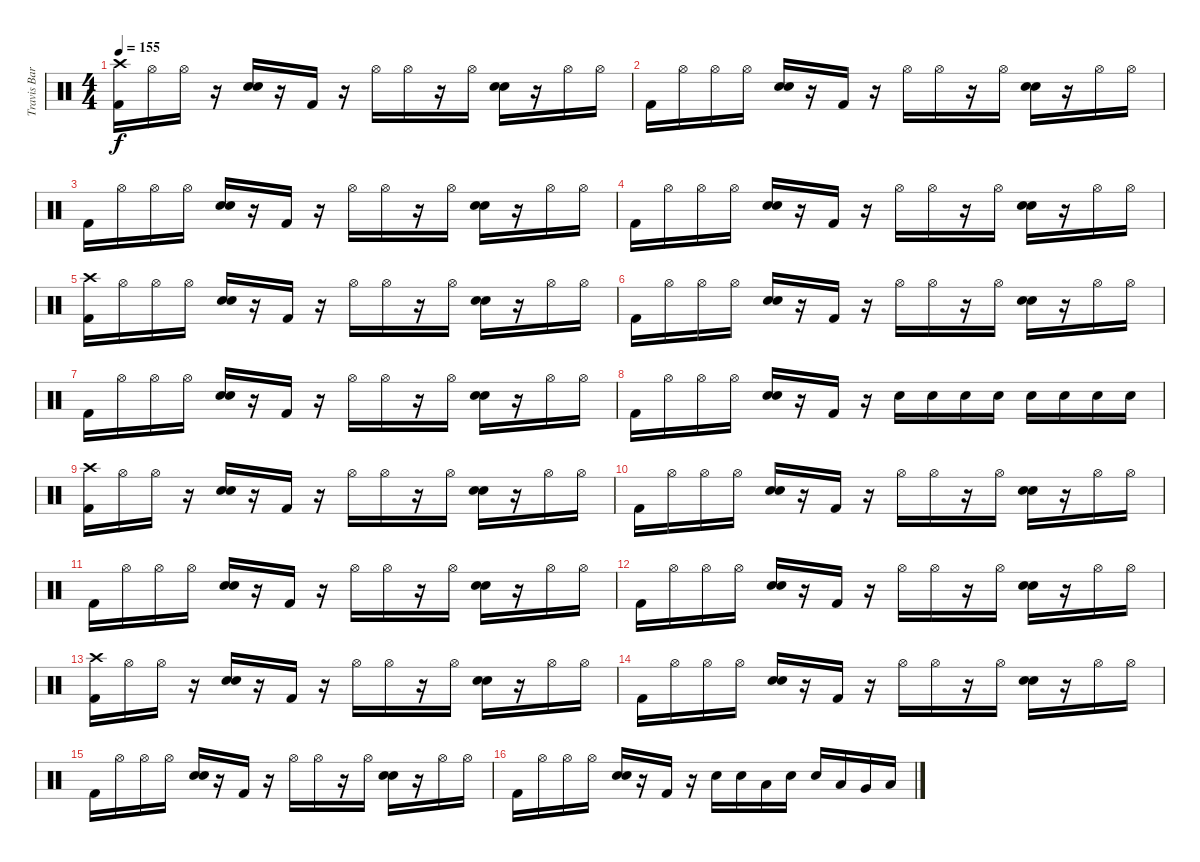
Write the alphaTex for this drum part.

\track ("Travis Barker Drums" "Travis Bar") {instrument percussion}
\staff {score}
\articulation defaults
\ts (4 4)
\tempo 155
\clef neutral
\ks c
("Crash high (hit)" "Kick (hit) 2").16{dy f} "Hi-Hat (open)".16 "Hi-Hat (open)".16 r.16 ("Hand Clap (hit)" "Snare (hit) 2").16 r.16 "Kick (hit) 2".16 r.16 "Hi-Hat (open)".16 "Hi-Hat (open)".16 r.16 "Hi-Hat (open)".16 ("Hand Clap (hit)" "Snare (hit) 2").16 r.16 "Hi-Hat (open)".16 "Hi-Hat (open)".16 |
"Kick (hit) 2".16 "Hi-Hat (open)".16 "Hi-Hat (open)".16 "Hi-Hat (open)".16 ("Hand Clap (hit)" "Snare (hit) 2").16 r.16 "Kick (hit) 2".16 r.16 "Hi-Hat (open)".16 "Hi-Hat (open)".16 r.16 "Hi-Hat (open)".16 ("Hand Clap (hit)" "Snare (hit) 2").16 r.16 "Hi-Hat (open)".16 "Hi-Hat (open)".16 |
"Kick (hit) 2".16 "Hi-Hat (open)".16 "Hi-Hat (open)".16 "Hi-Hat (open)".16 ("Hand Clap (hit)" "Snare (hit) 2").16 r.16 "Kick (hit) 2".16 r.16 "Hi-Hat (open)".16 "Hi-Hat (open)".16 r.16 "Hi-Hat (open)".16 ("Hand Clap (hit)" "Snare (hit) 2").16 r.16 "Hi-Hat (open)".16 "Hi-Hat (open)".16 |
"Kick (hit) 2".16 "Hi-Hat (open)".16 "Hi-Hat (open)".16 "Hi-Hat (open)".16 ("Hand Clap (hit)" "Snare (hit) 2").16 r.16 "Kick (hit) 2".16 r.16 "Hi-Hat (open)".16 "Hi-Hat (open)".16 r.16 "Hi-Hat (open)".16 ("Hand Clap (hit)" "Snare (hit) 2").16 r.16 "Hi-Hat (open)".16 "Hi-Hat (open)".16 |
("Crash high (hit)" "Kick (hit) 2").16 "Hi-Hat (open)".16 "Hi-Hat (open)".16 "Hi-Hat (open)".16 ("Hand Clap (hit)" "Snare (hit) 2").16 r.16 "Kick (hit) 2".16 r.16 "Hi-Hat (open)".16 "Hi-Hat (open)".16 r.16 "Hi-Hat (open)".16 ("Hand Clap (hit)" "Snare (hit) 2").16 r.16 "Hi-Hat (open)".16 "Hi-Hat (open)".16 |
"Kick (hit) 2".16 "Hi-Hat (open)".16 "Hi-Hat (open)".16 "Hi-Hat (open)".16 ("Hand Clap (hit)" "Snare (hit) 2").16 r.16 "Kick (hit) 2".16 r.16 "Hi-Hat (open)".16 "Hi-Hat (open)".16 r.16 "Hi-Hat (open)".16 ("Hand Clap (hit)" "Snare (hit) 2").16 r.16 "Hi-Hat (open)".16 "Hi-Hat (open)".16 |
"Kick (hit) 2".16 "Hi-Hat (open)".16 "Hi-Hat (open)".16 "Hi-Hat (open)".16 ("Hand Clap (hit)" "Snare (hit) 2").16 r.16 "Kick (hit) 2".16 r.16 "Hi-Hat (open)".16 "Hi-Hat (open)".16 r.16 "Hi-Hat (open)".16 ("Hand Clap (hit)" "Snare (hit) 2").16 r.16 "Hi-Hat (open)".16 "Hi-Hat (open)".16 |
"Kick (hit) 2".16 "Hi-Hat (open)".16 "Hi-Hat (open)".16 "Hi-Hat (open)".16 ("Hand Clap (hit)" "Snare (hit) 2").16 r.16 "Kick (hit) 2".16 r.16 "Snare (hit) 2".16 "Snare (hit) 2".16 "Snare (hit) 2".16 "Snare (hit) 2".16 "Snare (hit) 2".16 "Snare (hit) 2".16 "Snare (hit) 2".16 "Snare (hit) 2".16 |
("Crash high (hit)" "Kick (hit) 2").16 "Hi-Hat (open)".16 "Hi-Hat (open)".16 r.16 ("Hand Clap (hit)" "Snare (hit) 2").16 r.16 "Kick (hit) 2".16 r.16 "Hi-Hat (open)".16 "Hi-Hat (open)".16 r.16 "Hi-Hat (open)".16 ("Hand Clap (hit)" "Snare (hit) 2").16 r.16 "Hi-Hat (open)".16 "Hi-Hat (open)".16 |
"Kick (hit) 2".16 "Hi-Hat (open)".16 "Hi-Hat (open)".16 "Hi-Hat (open)".16 ("Hand Clap (hit)" "Snare (hit) 2").16 r.16 "Kick (hit) 2".16 r.16 "Hi-Hat (open)".16 "Hi-Hat (open)".16 r.16 "Hi-Hat (open)".16 ("Hand Clap (hit)" "Snare (hit) 2").16 r.16 "Hi-Hat (open)".16 "Hi-Hat (open)".16 |
"Kick (hit) 2".16 "Hi-Hat (open)".16 "Hi-Hat (open)".16 "Hi-Hat (open)".16 ("Hand Clap (hit)" "Snare (hit) 2").16 r.16 "Kick (hit) 2".16 r.16 "Hi-Hat (open)".16 "Hi-Hat (open)".16 r.16 "Hi-Hat (open)".16 ("Hand Clap (hit)" "Snare (hit) 2").16 r.16 "Hi-Hat (open)".16 "Hi-Hat (open)".16 |
"Kick (hit) 2".16 "Hi-Hat (open)".16 "Hi-Hat (open)".16 "Hi-Hat (open)".16 ("Hand Clap (hit)" "Snare (hit) 2").16 r.16 "Kick (hit) 2".16 r.16 "Hi-Hat (open)".16 "Hi-Hat (open)".16 r.16 "Hi-Hat (open)".16 ("Hand Clap (hit)" "Snare (hit) 2").16 r.16 "Hi-Hat (open)".16 "Hi-Hat (open)".16 |
("Crash high (hit)" "Kick (hit) 2").16 "Hi-Hat (open)".16 "Hi-Hat (open)".16 r.16 ("Hand Clap (hit)" "Snare (hit) 2").16 r.16 "Kick (hit) 2".16 r.16 "Hi-Hat (open)".16 "Hi-Hat (open)".16 r.16 "Hi-Hat (open)".16 ("Hand Clap (hit)" "Snare (hit) 2").16 r.16 "Hi-Hat (open)".16 "Hi-Hat (open)".16 |
"Kick (hit) 2".16 "Hi-Hat (open)".16 "Hi-Hat (open)".16 "Hi-Hat (open)".16 ("Hand Clap (hit)" "Snare (hit) 2").16 r.16 "Kick (hit) 2".16 r.16 "Hi-Hat (open)".16 "Hi-Hat (open)".16 r.16 "Hi-Hat (open)".16 ("Hand Clap (hit)" "Snare (hit) 2").16 r.16 "Hi-Hat (open)".16 "Hi-Hat (open)".16 |
"Kick (hit) 2".16 "Hi-Hat (open)".16 "Hi-Hat (open)".16 "Hi-Hat (open)".16 ("Hand Clap (hit)" "Snare (hit) 2").16 r.16 "Kick (hit) 2".16 r.16 "Hi-Hat (open)".16 "Hi-Hat (open)".16 r.16 "Hi-Hat (open)".16 ("Hand Clap (hit)" "Snare (hit) 2").16 r.16 "Hi-Hat (open)".16 "Hi-Hat (open)".16 |
"Kick (hit) 2".16 "Hi-Hat (open)".16 "Hi-Hat (open)".16 "Hi-Hat (open)".16 ("Hand Clap (hit)" "Snare (hit) 2").16 r.16 "Kick (hit) 2".16 r.16 "Snare (hit) 2".16 "Snare (hit) 2".16 "Low Tom (hit)".16 "Snare (hit) 2".16 "Snare (hit) 2".16 "Low Tom (hit)".16 "Very Low Tom (hit)".16 "Low Floor Tom (hit)".16
